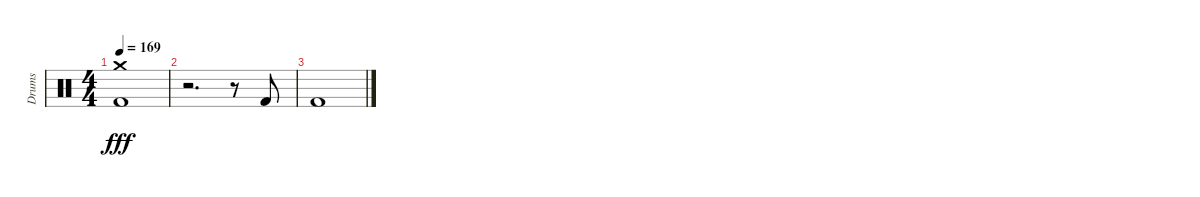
\track ("Drums" "Drums") {instrument percussion}
\staff {score}
\articulation defaults
\ts (4 4)
\tempo 169
\clef neutral
\ks c
("Crash medium (hit)" "Kick (hit) 2").1{dy fff} |
r.2{d} r.8 "Kick (hit) 2".8 |
"Kick (hit) 2".1
